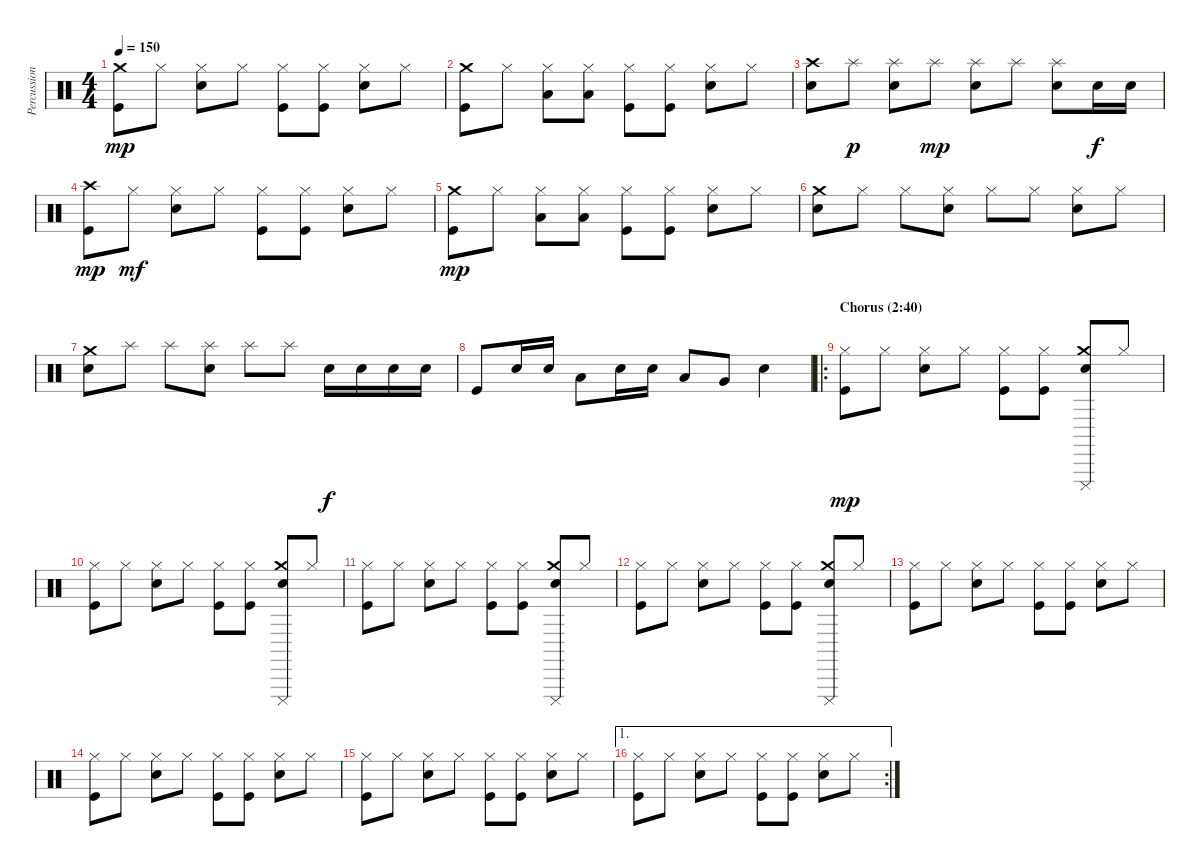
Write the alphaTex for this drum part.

\track ("Percussion" "Percussion") {instrument percussion}
\staff {score}
\articulation defaults
\ts (4 4)
\tempo 150
\clef neutral
\ks c
("Crash medium (hit)" "Kick (hit)").8{dy mp} "Hi-Hat (closed)".8 ("Hi-Hat (closed)" "Electric Snare (hit)").8 "Hi-Hat (closed)".8 ("Hi-Hat (closed)" "Kick (hit)").8 ("Hi-Hat (closed)" "Kick (hit)").8 ("Hi-Hat (closed)" "Electric Snare (hit)").8 "Hi-Hat (closed)".8 |
("Crash medium (hit)" "Kick (hit)").8 "Hi-Hat (closed)".8 ("Hi-Hat (closed)" "Low Tom (hit)").8 ("Hi-Hat (closed)" "Low Tom (hit)").8 ("Hi-Hat (closed)" "Kick (hit)").8 ("Hi-Hat (closed)" "Kick (hit)").8 ("Hi-Hat (closed)" "Electric Snare (hit)").8 "Hi-Hat (closed)".8 |
("Crash high (hit)" "Electric Snare (hit)").8 "Splash (hit)".8{dy p} ("Splash (hit)" "Electric Snare (hit)").8 "Splash (hit)".8{dy mp} ("Splash (hit)" "Electric Snare (hit)").8 "Splash (hit)".8 ("Splash (hit)" "Electric Snare (hit)").8 "Electric Snare (hit)".16{dy f} "Electric Snare (hit)".16 |
("Crash high (hit)" "Kick (hit)").8{dy mp} "Hi-Hat (closed)".8{dy mf} ("Hi-Hat (closed)" "Electric Snare (hit)").8 "Hi-Hat (closed)".8 ("Hi-Hat (closed)" "Kick (hit)").8 ("Hi-Hat (closed)" "Kick (hit)").8 ("Hi-Hat (closed)" "Electric Snare (hit)").8 "Hi-Hat (closed)".8 |
("Crash medium (hit)" "Kick (hit)").8{dy mp} "Hi-Hat (closed)".8 ("Hi-Hat (closed)" "Low Tom (hit)").8 ("Hi-Hat (closed)" "Low Tom (hit)").8 ("Hi-Hat (closed)" "Kick (hit)").8 ("Hi-Hat (closed)" "Kick (hit)").8 ("Hi-Hat (closed)" "Electric Snare (hit)").8 "Hi-Hat (closed)".8 |
("Crash medium (hit)" "Electric Snare (hit)").8 "Hi-Hat (closed)".8 "Hi-Hat (closed)".8 ("Hi-Hat (closed)" "Electric Snare (hit)").8 "Hi-Hat (closed)".8 "Hi-Hat (closed)".8 ("Hi-Hat (closed)" "Electric Snare (hit)").8 "Hi-Hat (closed)".8 |
("Crash medium (hit)" "Electric Snare (hit)").8 "Splash (hit)".8 "Splash (hit)".8 ("Splash (hit)" "Electric Snare (hit)").8 "Splash (hit)".8 "Splash (hit)".8 "Electric Snare (hit)".16{dy f} "Electric Snare (hit)".16 "Electric Snare (hit)".16 "Electric Snare (hit)".16 |
"Kick (hit)".8 "Electric Snare (hit)".16 "Electric Snare (hit)".16 "Low Tom (hit)".8 "Electric Snare (hit)".16 "Electric Snare (hit)".16 "Low Tom (hit)".8 "Very Low Tom (hit)".8 "Electric Snare (hit)".4 |
\ro
\section ("" "Chorus (2:40)")
("Hi-Hat (closed)" "Kick (hit)").8{dy mp} "Hi-Hat (closed)".8 ("Hi-Hat (closed)" "Electric Snare (hit)").8 "Hi-Hat (closed)".8 ("Hi-Hat (closed)" "Kick (hit)").8 ("Hi-Hat (closed)" "Kick (hit)").8 ("Crash medium (hit)" "Cuica (mute)" "Electric Snare (hit)").8 "Hi-Hat (closed)".8 |
("Hi-Hat (closed)" "Kick (hit)").8 "Hi-Hat (closed)".8 ("Hi-Hat (closed)" "Electric Snare (hit)").8 "Hi-Hat (closed)".8 ("Hi-Hat (closed)" "Kick (hit)").8 ("Hi-Hat (closed)" "Kick (hit)").8 ("Crash medium (hit)" "Cuica (mute)" "Electric Snare (hit)").8 "Hi-Hat (closed)".8 |
("Hi-Hat (closed)" "Kick (hit)").8 "Hi-Hat (closed)".8 ("Hi-Hat (closed)" "Electric Snare (hit)").8 "Hi-Hat (closed)".8 ("Hi-Hat (closed)" "Kick (hit)").8 ("Hi-Hat (closed)" "Kick (hit)").8 ("Crash medium (hit)" "Cuica (mute)" "Electric Snare (hit)").8 "Hi-Hat (closed)".8 |
("Hi-Hat (closed)" "Kick (hit)").8 "Hi-Hat (closed)".8 ("Hi-Hat (closed)" "Electric Snare (hit)").8 "Hi-Hat (closed)".8 ("Hi-Hat (closed)" "Kick (hit)").8 ("Hi-Hat (closed)" "Kick (hit)").8 ("Crash medium (hit)" "Cuica (mute)" "Electric Snare (hit)").8 "Hi-Hat (closed)".8 |
("Hi-Hat (closed)" "Kick (hit)").8 "Hi-Hat (closed)".8 ("Hi-Hat (closed)" "Electric Snare (hit)").8 "Hi-Hat (closed)".8 ("Hi-Hat (closed)" "Kick (hit)").8 ("Hi-Hat (closed)" "Kick (hit)").8 ("Hi-Hat (closed)" "Electric Snare (hit)").8 "Hi-Hat (closed)".8 |
("Hi-Hat (closed)" "Kick (hit)").8 "Hi-Hat (closed)".8 ("Hi-Hat (closed)" "Electric Snare (hit)").8 "Hi-Hat (closed)".8 ("Hi-Hat (closed)" "Kick (hit)").8 ("Hi-Hat (closed)" "Kick (hit)").8 ("Hi-Hat (closed)" "Electric Snare (hit)").8 "Hi-Hat (closed)".8 |
("Hi-Hat (closed)" "Kick (hit)").8 "Hi-Hat (closed)".8 ("Hi-Hat (closed)" "Electric Snare (hit)").8 "Hi-Hat (closed)".8 ("Hi-Hat (closed)" "Kick (hit)").8 ("Hi-Hat (closed)" "Kick (hit)").8 ("Hi-Hat (closed)" "Electric Snare (hit)").8 "Hi-Hat (closed)".8 |
\ae 1
\rc 2
("Hi-Hat (closed)" "Kick (hit)").8 "Hi-Hat (closed)".8 ("Hi-Hat (closed)" "Electric Snare (hit)").8 "Hi-Hat (closed)".8 ("Hi-Hat (closed)" "Kick (hit)").8 ("Hi-Hat (closed)" "Kick (hit)").8 ("Hi-Hat (closed)" "Electric Snare (hit)").8 "Hi-Hat (closed)".8
